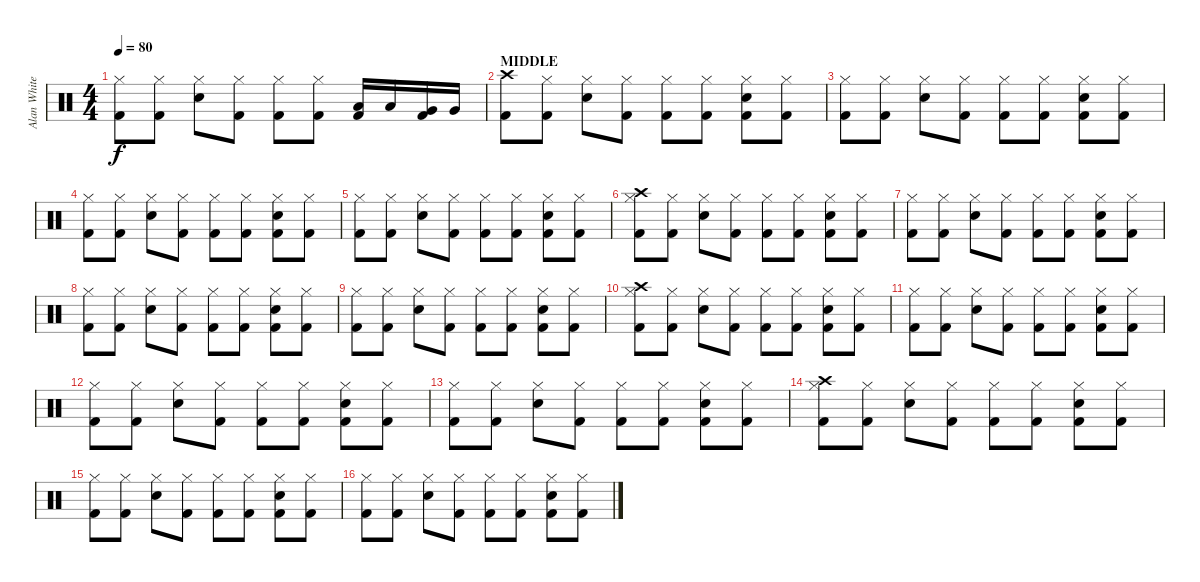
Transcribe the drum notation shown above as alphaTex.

\track ("Alan White" "Alan White") {instrument percussion}
\staff {score}
\articulation defaults
\ts (4 4)
\tempo 80
\clef neutral
\ks c
("Hi-Hat (closed)" "Kick (hit) 2").8{dy f} ("Hi-Hat (closed)" "Kick (hit) 2").8 ("Hi-Hat (closed)" "Snare (hit) 2").8 ("Hi-Hat (closed)" "Kick (hit) 2").8 ("Hi-Hat (closed)" "Kick (hit) 2").8 ("Hi-Hat (closed)" "Kick (hit) 2").8 ("Low Tom (hit)" "Kick (hit) 2").16 "Low Tom (hit)".16 ("Very Low Tom (hit)" "Kick (hit) 2").16 "Very Low Tom (hit)".16 |
\section ("" "MIDDLE")
("Crash high (hit)" "Kick (hit) 2").8 ("Hi-Hat (closed)" "Kick (hit) 2").8 ("Hi-Hat (closed)" "Snare (hit) 2").8 ("Hi-Hat (closed)" "Kick (hit) 2").8 ("Hi-Hat (closed)" "Kick (hit) 2").8 ("Hi-Hat (closed)" "Kick (hit) 2").8 ("Hi-Hat (closed)" "Snare (hit) 2" "Kick (hit) 2").8 ("Hi-Hat (closed)" "Kick (hit) 2").8 |
("Hi-Hat (closed)" "Kick (hit) 2").8 ("Hi-Hat (closed)" "Kick (hit) 2").8 ("Hi-Hat (closed)" "Snare (hit) 2").8 ("Hi-Hat (closed)" "Kick (hit) 2").8 ("Hi-Hat (closed)" "Kick (hit) 2").8 ("Hi-Hat (closed)" "Kick (hit) 2").8 ("Hi-Hat (closed)" "Snare (hit) 2" "Kick (hit) 2").8 ("Hi-Hat (closed)" "Kick (hit) 2").8 |
("Hi-Hat (closed)" "Kick (hit) 2").8 ("Hi-Hat (closed)" "Kick (hit) 2").8 ("Hi-Hat (closed)" "Snare (hit) 2").8 ("Hi-Hat (closed)" "Kick (hit) 2").8 ("Hi-Hat (closed)" "Kick (hit) 2").8 ("Hi-Hat (closed)" "Kick (hit) 2").8 ("Hi-Hat (closed)" "Snare (hit) 2" "Kick (hit) 2").8 ("Hi-Hat (closed)" "Kick (hit) 2").8 |
("Hi-Hat (closed)" "Kick (hit) 2").8 ("Hi-Hat (closed)" "Kick (hit) 2").8 ("Hi-Hat (closed)" "Snare (hit) 2").8 ("Hi-Hat (closed)" "Kick (hit) 2").8 ("Hi-Hat (closed)" "Kick (hit) 2").8 ("Hi-Hat (closed)" "Kick (hit) 2").8 ("Hi-Hat (closed)" "Snare (hit) 2" "Kick (hit) 2").8 ("Hi-Hat (closed)" "Kick (hit) 2").8 |
("Hi-Hat (closed)" "Crash high (hit)" "Kick (hit) 2").8 ("Hi-Hat (closed)" "Kick (hit) 2").8 ("Hi-Hat (closed)" "Snare (hit) 2").8 ("Hi-Hat (closed)" "Kick (hit) 2").8 ("Hi-Hat (closed)" "Kick (hit) 2").8 ("Hi-Hat (closed)" "Kick (hit) 2").8 ("Hi-Hat (closed)" "Snare (hit) 2" "Kick (hit) 2").8 ("Hi-Hat (closed)" "Kick (hit) 2").8 |
("Hi-Hat (closed)" "Kick (hit) 2").8 ("Hi-Hat (closed)" "Kick (hit) 2").8 ("Hi-Hat (closed)" "Snare (hit) 2").8 ("Hi-Hat (closed)" "Kick (hit) 2").8 ("Hi-Hat (closed)" "Kick (hit) 2").8 ("Hi-Hat (closed)" "Kick (hit) 2").8 ("Hi-Hat (closed)" "Snare (hit) 2" "Kick (hit) 2").8 ("Hi-Hat (closed)" "Kick (hit) 2").8 |
("Hi-Hat (closed)" "Kick (hit) 2").8 ("Hi-Hat (closed)" "Kick (hit) 2").8 ("Hi-Hat (closed)" "Snare (hit) 2").8 ("Hi-Hat (closed)" "Kick (hit) 2").8 ("Hi-Hat (closed)" "Kick (hit) 2").8 ("Hi-Hat (closed)" "Kick (hit) 2").8 ("Hi-Hat (closed)" "Snare (hit) 2" "Kick (hit) 2").8 ("Hi-Hat (closed)" "Kick (hit) 2").8 |
("Hi-Hat (closed)" "Kick (hit) 2").8 ("Hi-Hat (closed)" "Kick (hit) 2").8 ("Hi-Hat (closed)" "Snare (hit) 2").8 ("Hi-Hat (closed)" "Kick (hit) 2").8 ("Hi-Hat (closed)" "Kick (hit) 2").8 ("Hi-Hat (closed)" "Kick (hit) 2").8 ("Hi-Hat (closed)" "Snare (hit) 2" "Kick (hit) 2").8 ("Hi-Hat (closed)" "Kick (hit) 2").8 |
("Hi-Hat (closed)" "Crash high (hit)" "Kick (hit) 2").8 ("Hi-Hat (closed)" "Kick (hit) 2").8 ("Hi-Hat (closed)" "Snare (hit) 2").8 ("Hi-Hat (closed)" "Kick (hit) 2").8 ("Hi-Hat (closed)" "Kick (hit) 2").8 ("Hi-Hat (closed)" "Kick (hit) 2").8 ("Hi-Hat (closed)" "Snare (hit) 2" "Kick (hit) 2").8 ("Hi-Hat (closed)" "Kick (hit) 2").8 |
("Hi-Hat (closed)" "Kick (hit) 2").8 ("Hi-Hat (closed)" "Kick (hit) 2").8 ("Hi-Hat (closed)" "Snare (hit) 2").8 ("Hi-Hat (closed)" "Kick (hit) 2").8 ("Hi-Hat (closed)" "Kick (hit) 2").8 ("Hi-Hat (closed)" "Kick (hit) 2").8 ("Hi-Hat (closed)" "Snare (hit) 2" "Kick (hit) 2").8 ("Hi-Hat (closed)" "Kick (hit) 2").8 |
("Hi-Hat (closed)" "Kick (hit) 2").8 ("Hi-Hat (closed)" "Kick (hit) 2").8 ("Hi-Hat (closed)" "Snare (hit) 2").8 ("Hi-Hat (closed)" "Kick (hit) 2").8 ("Hi-Hat (closed)" "Kick (hit) 2").8 ("Hi-Hat (closed)" "Kick (hit) 2").8 ("Hi-Hat (closed)" "Snare (hit) 2" "Kick (hit) 2").8 ("Hi-Hat (closed)" "Kick (hit) 2").8 |
("Hi-Hat (closed)" "Kick (hit) 2").8 ("Hi-Hat (closed)" "Kick (hit) 2").8 ("Hi-Hat (closed)" "Snare (hit) 2").8 ("Hi-Hat (closed)" "Kick (hit) 2").8 ("Hi-Hat (closed)" "Kick (hit) 2").8 ("Hi-Hat (closed)" "Kick (hit) 2").8 ("Hi-Hat (closed)" "Snare (hit) 2" "Kick (hit) 2").8 ("Hi-Hat (closed)" "Kick (hit) 2").8 |
("Hi-Hat (closed)" "Crash high (hit)" "Kick (hit) 2").8 ("Hi-Hat (closed)" "Kick (hit) 2").8 ("Hi-Hat (closed)" "Snare (hit) 2").8 ("Hi-Hat (closed)" "Kick (hit) 2").8 ("Hi-Hat (closed)" "Kick (hit) 2").8 ("Hi-Hat (closed)" "Kick (hit) 2").8 ("Hi-Hat (closed)" "Snare (hit) 2" "Kick (hit) 2").8 ("Hi-Hat (closed)" "Kick (hit) 2").8 |
("Hi-Hat (closed)" "Kick (hit) 2").8 ("Hi-Hat (closed)" "Kick (hit) 2").8 ("Hi-Hat (closed)" "Snare (hit) 2").8 ("Hi-Hat (closed)" "Kick (hit) 2").8 ("Hi-Hat (closed)" "Kick (hit) 2").8 ("Hi-Hat (closed)" "Kick (hit) 2").8 ("Hi-Hat (closed)" "Snare (hit) 2" "Kick (hit) 2").8 ("Hi-Hat (closed)" "Kick (hit) 2").8 |
("Hi-Hat (closed)" "Kick (hit) 2").8 ("Hi-Hat (closed)" "Kick (hit) 2").8 ("Hi-Hat (closed)" "Snare (hit) 2").8 ("Hi-Hat (closed)" "Kick (hit) 2").8 ("Hi-Hat (closed)" "Kick (hit) 2").8 ("Hi-Hat (closed)" "Kick (hit) 2").8 ("Hi-Hat (closed)" "Snare (hit) 2" "Kick (hit) 2").8 ("Hi-Hat (closed)" "Kick (hit) 2").8
